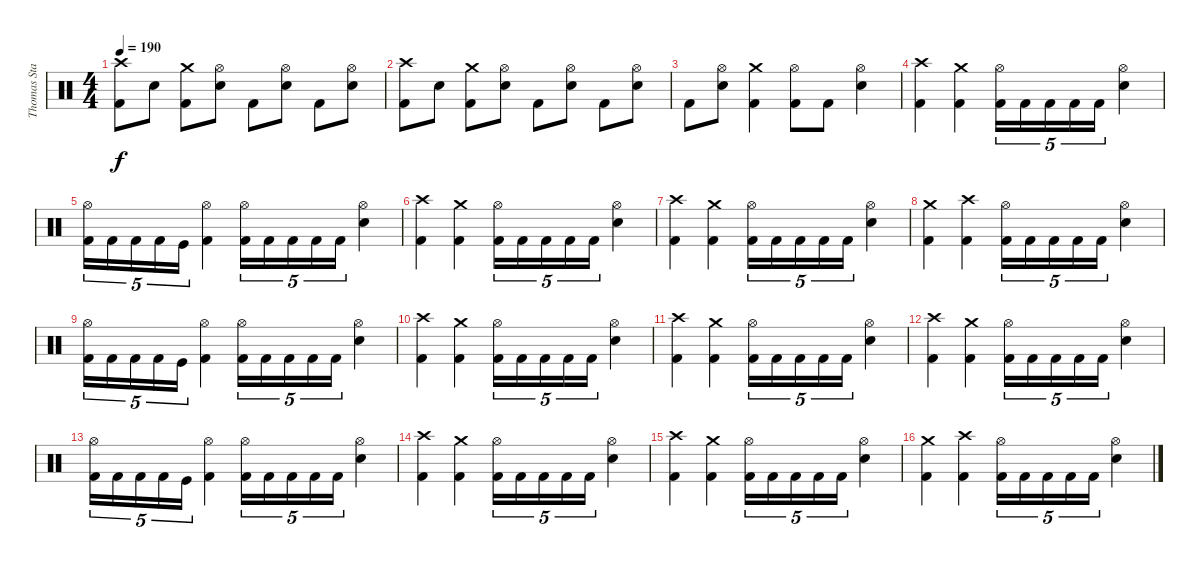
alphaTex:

\track ("Thomas Stauch" "Thomas Sta") {instrument percussion}
\staff {score}
\articulation defaults
\ts (4 4)
\tempo 190
\clef neutral
\ks c
("Crash high (hit)" "Kick (hit) 2").8{dy f} "Electric Snare (hit)".8 ("Crash medium (hit)" "Kick (hit) 2").8 ("Hi-Hat (open)" "Electric Snare (hit)").8 "Kick (hit) 2".8 ("Hi-Hat (open)" "Electric Snare (hit)").8 "Kick (hit) 2".8 ("Hi-Hat (open)" "Electric Snare (hit)").8 |
("Crash high (hit)" "Kick (hit) 2").8 "Electric Snare (hit)".8 ("Crash medium (hit)" "Kick (hit) 2").8 ("Hi-Hat (open)" "Electric Snare (hit)").8 "Kick (hit) 2".8 ("Hi-Hat (open)" "Electric Snare (hit)").8 "Kick (hit) 2".8 ("Hi-Hat (open)" "Electric Snare (hit)").8 |
"Kick (hit) 2".8 ("Hi-Hat (open)" "Electric Snare (hit)").8 ("Crash medium (hit)" "Kick (hit) 2").4 ("Hi-Hat (open)" "Kick (hit) 2").8 "Kick (hit) 2".8 ("Hi-Hat (open)" "Electric Snare (hit)").4 |
("Crash high (hit)" "Kick (hit) 2").4 ("Crash medium (hit)" "Kick (hit) 2").4 ("Hi-Hat (open)" "Kick (hit) 2").16{tu (5 4)} "Kick (hit) 2".16{tu (5 4)} "Kick (hit) 2".16{tu (5 4)} "Kick (hit) 2".16{tu (5 4)} "Kick (hit) 2".16{tu (5 4)} ("Hi-Hat (open)" "Electric Snare (hit)").4 |
("Hi-Hat (open)" "Kick (hit) 2").16{tu (5 4)} "Kick (hit) 2".16{tu (5 4)} "Kick (hit) 2".16{tu (5 4)} "Kick (hit) 2".16{tu (5 4)} "Kick (hit)".16{tu (5 4)} ("Hi-Hat (open)" "Kick (hit) 2").4 ("Hi-Hat (open)" "Kick (hit) 2").16{tu (5 4)} "Kick (hit) 2".16{tu (5 4)} "Kick (hit) 2".16{tu (5 4)} "Kick (hit) 2".16{tu (5 4)} "Kick (hit) 2".16{tu (5 4)} ("Hi-Hat (open)" "Electric Snare (hit)").4 |
("Crash high (hit)" "Kick (hit) 2").4 ("Crash medium (hit)" "Kick (hit) 2").4 ("Hi-Hat (open)" "Kick (hit) 2").16{tu (5 4)} "Kick (hit) 2".16{tu (5 4)} "Kick (hit) 2".16{tu (5 4)} "Kick (hit) 2".16{tu (5 4)} "Kick (hit) 2".16{tu (5 4)} ("Hi-Hat (open)" "Electric Snare (hit)").4 |
("Crash high (hit)" "Kick (hit) 2").4 ("Crash medium (hit)" "Kick (hit) 2").4 ("Hi-Hat (open)" "Kick (hit) 2").16{tu (5 4)} "Kick (hit) 2".16{tu (5 4)} "Kick (hit) 2".16{tu (5 4)} "Kick (hit) 2".16{tu (5 4)} "Kick (hit) 2".16{tu (5 4)} ("Hi-Hat (open)" "Electric Snare (hit)").4 |
("Crash medium (hit)" "Kick (hit) 2").4 ("Crash high (hit)" "Kick (hit) 2").4 ("Hi-Hat (open)" "Kick (hit) 2").16{tu (5 4)} "Kick (hit) 2".16{tu (5 4)} "Kick (hit) 2".16{tu (5 4)} "Kick (hit) 2".16{tu (5 4)} "Kick (hit) 2".16{tu (5 4)} ("Hi-Hat (open)" "Electric Snare (hit)").4 |
("Hi-Hat (open)" "Kick (hit) 2").16{tu (5 4)} "Kick (hit) 2".16{tu (5 4)} "Kick (hit) 2".16{tu (5 4)} "Kick (hit) 2".16{tu (5 4)} "Kick (hit)".16{tu (5 4)} ("Hi-Hat (open)" "Kick (hit) 2").4 ("Hi-Hat (open)" "Kick (hit) 2").16{tu (5 4)} "Kick (hit) 2".16{tu (5 4)} "Kick (hit) 2".16{tu (5 4)} "Kick (hit) 2".16{tu (5 4)} "Kick (hit) 2".16{tu (5 4)} ("Hi-Hat (open)" "Electric Snare (hit)").4 |
("Crash high (hit)" "Kick (hit) 2").4 ("Crash medium (hit)" "Kick (hit) 2").4 ("Hi-Hat (open)" "Kick (hit) 2").16{tu (5 4)} "Kick (hit) 2".16{tu (5 4)} "Kick (hit) 2".16{tu (5 4)} "Kick (hit) 2".16{tu (5 4)} "Kick (hit) 2".16{tu (5 4)} ("Hi-Hat (open)" "Electric Snare (hit)").4 |
("Crash high (hit)" "Kick (hit) 2").4 ("Crash medium (hit)" "Kick (hit) 2").4 ("Hi-Hat (open)" "Kick (hit) 2").16{tu (5 4)} "Kick (hit) 2".16{tu (5 4)} "Kick (hit) 2".16{tu (5 4)} "Kick (hit) 2".16{tu (5 4)} "Kick (hit) 2".16{tu (5 4)} ("Hi-Hat (open)" "Electric Snare (hit)").4 |
("Crash high (hit)" "Kick (hit) 2").4 ("Crash medium (hit)" "Kick (hit) 2").4 ("Hi-Hat (open)" "Kick (hit) 2").16{tu (5 4)} "Kick (hit) 2".16{tu (5 4)} "Kick (hit) 2".16{tu (5 4)} "Kick (hit) 2".16{tu (5 4)} "Kick (hit) 2".16{tu (5 4)} ("Hi-Hat (open)" "Electric Snare (hit)").4 |
("Hi-Hat (open)" "Kick (hit) 2").16{tu (5 4)} "Kick (hit) 2".16{tu (5 4)} "Kick (hit) 2".16{tu (5 4)} "Kick (hit) 2".16{tu (5 4)} "Kick (hit)".16{tu (5 4)} ("Hi-Hat (open)" "Kick (hit) 2").4 ("Hi-Hat (open)" "Kick (hit) 2").16{tu (5 4)} "Kick (hit) 2".16{tu (5 4)} "Kick (hit) 2".16{tu (5 4)} "Kick (hit) 2".16{tu (5 4)} "Kick (hit) 2".16{tu (5 4)} ("Hi-Hat (open)" "Electric Snare (hit)").4 |
("Crash high (hit)" "Kick (hit) 2").4 ("Crash medium (hit)" "Kick (hit) 2").4 ("Hi-Hat (open)" "Kick (hit) 2").16{tu (5 4)} "Kick (hit) 2".16{tu (5 4)} "Kick (hit) 2".16{tu (5 4)} "Kick (hit) 2".16{tu (5 4)} "Kick (hit) 2".16{tu (5 4)} ("Hi-Hat (open)" "Electric Snare (hit)").4 |
("Crash high (hit)" "Kick (hit) 2").4 ("Crash medium (hit)" "Kick (hit) 2").4 ("Hi-Hat (open)" "Kick (hit) 2").16{tu (5 4)} "Kick (hit) 2".16{tu (5 4)} "Kick (hit) 2".16{tu (5 4)} "Kick (hit) 2".16{tu (5 4)} "Kick (hit) 2".16{tu (5 4)} ("Hi-Hat (open)" "Electric Snare (hit)").4 |
("Crash medium (hit)" "Kick (hit) 2").4 ("Crash high (hit)" "Kick (hit) 2").4 ("Hi-Hat (open)" "Kick (hit) 2").16{tu (5 4)} "Kick (hit) 2".16{tu (5 4)} "Kick (hit) 2".16{tu (5 4)} "Kick (hit) 2".16{tu (5 4)} "Kick (hit) 2".16{tu (5 4)} ("Hi-Hat (open)" "Electric Snare (hit)").4
